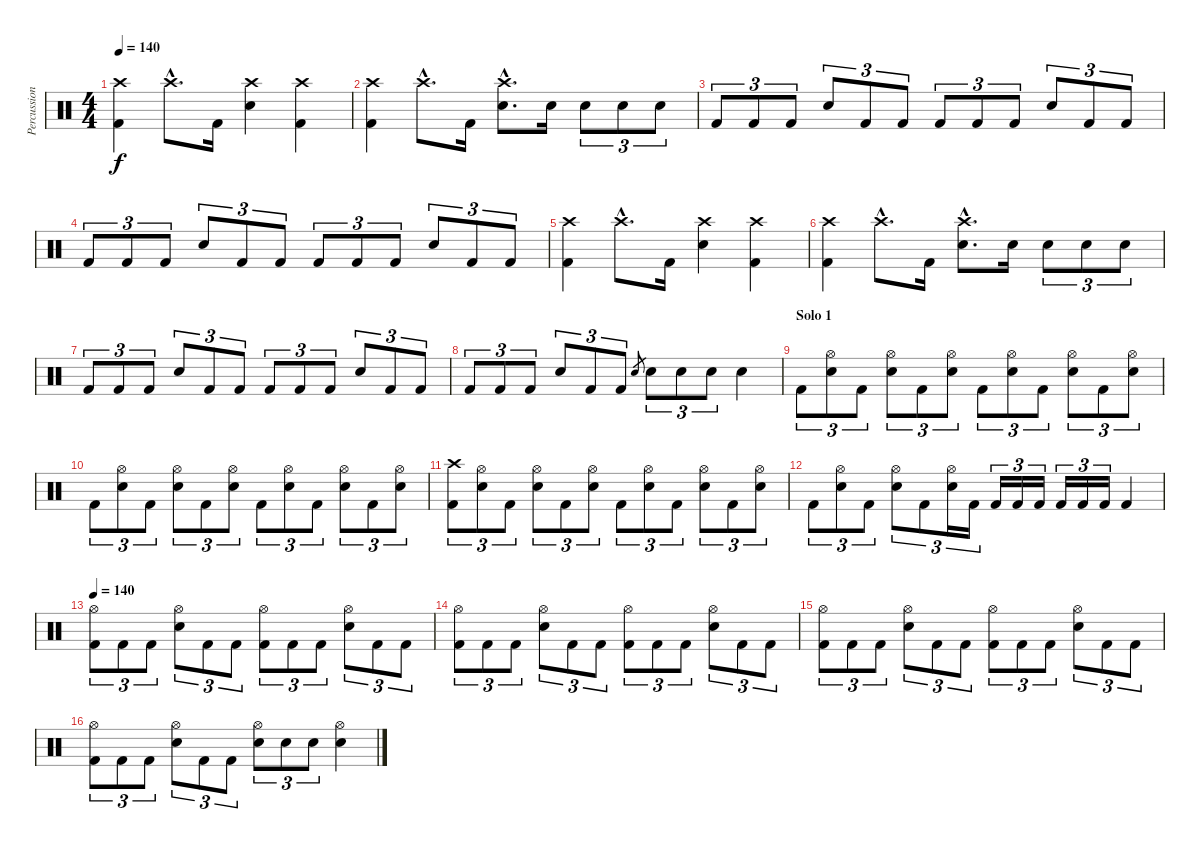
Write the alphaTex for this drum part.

\track ("Percussion" "Percussion") {instrument percussion}
\staff {score}
\articulation defaults
\ts (4 4)
\tempo 140
\clef neutral
\ks c
("Crash high (hit)" "Kick (hit) 2").4{dy f} "Crash high (hit)"{hac}.8{d} "Kick (hit) 2".16 ("Crash high (hit)" "Electric Snare (hit)").4 ("Crash high (hit)" "Kick (hit) 2").4 |
("Crash high (hit)" "Kick (hit) 2").4 "Crash high (hit)"{hac}.8{d} "Kick (hit) 2".16 ("Crash high (hit)"{hac} "Electric Snare (hit)"{hac}).8{d} "Electric Snare (hit)".16 "Electric Snare (hit)".8{tu (3 2)} "Electric Snare (hit)".8{tu (3 2)} "Electric Snare (hit)".8{tu (3 2)} |
"Kick (hit) 2".8{tu (3 2)} "Kick (hit) 2".8{tu (3 2)} "Kick (hit) 2".8{tu (3 2)} "Electric Snare (hit)".8{tu (3 2)} "Kick (hit) 2".8{tu (3 2)} "Kick (hit) 2".8{tu (3 2)} "Kick (hit) 2".8{tu (3 2)} "Kick (hit) 2".8{tu (3 2)} "Kick (hit) 2".8{tu (3 2)} "Electric Snare (hit)".8{tu (3 2)} "Kick (hit) 2".8{tu (3 2)} "Kick (hit) 2".8{tu (3 2)} |
"Kick (hit) 2".8{tu (3 2)} "Kick (hit) 2".8{tu (3 2)} "Kick (hit) 2".8{tu (3 2)} "Electric Snare (hit)".8{tu (3 2)} "Kick (hit) 2".8{tu (3 2)} "Kick (hit) 2".8{tu (3 2)} "Kick (hit) 2".8{tu (3 2)} "Kick (hit) 2".8{tu (3 2)} "Kick (hit) 2".8{tu (3 2)} "Electric Snare (hit)".8{tu (3 2)} "Kick (hit) 2".8{tu (3 2)} "Kick (hit) 2".8{tu (3 2)} |
("Crash high (hit)" "Kick (hit) 2").4 "Crash high (hit)"{hac}.8{d} "Kick (hit) 2".16 ("Crash high (hit)" "Electric Snare (hit)").4 ("Crash high (hit)" "Kick (hit) 2").4 |
("Crash high (hit)" "Kick (hit) 2").4 "Crash high (hit)"{hac}.8{d} "Kick (hit) 2".16 ("Crash high (hit)"{hac} "Electric Snare (hit)"{hac}).8{d} "Electric Snare (hit)".16 "Electric Snare (hit)".8{tu (3 2)} "Electric Snare (hit)".8{tu (3 2)} "Electric Snare (hit)".8{tu (3 2)} |
"Kick (hit) 2".8{tu (3 2)} "Kick (hit) 2".8{tu (3 2)} "Kick (hit) 2".8{tu (3 2)} "Electric Snare (hit)".8{tu (3 2)} "Kick (hit) 2".8{tu (3 2)} "Kick (hit) 2".8{tu (3 2)} "Kick (hit) 2".8{tu (3 2)} "Kick (hit) 2".8{tu (3 2)} "Kick (hit) 2".8{tu (3 2)} "Electric Snare (hit)".8{tu (3 2)} "Kick (hit) 2".8{tu (3 2)} "Kick (hit) 2".8{tu (3 2)} |
"Kick (hit) 2".8{tu (3 2)} "Kick (hit) 2".8{tu (3 2)} "Kick (hit) 2".8{tu (3 2)} "Electric Snare (hit)".8{tu (3 2)} "Kick (hit) 2".8{tu (3 2)} "Kick (hit) 2".8{tu (3 2)} "Electric Snare (hit)".8{gr} "Electric Snare (hit)".8{tu (3 2)} "Electric Snare (hit)".8{tu (3 2)} "Electric Snare (hit)".8{tu (3 2)} "Electric Snare (hit)".4 |
\section ("" "Solo 1")
"Kick (hit) 2".8{tu (3 2)} ("Hi-Hat (open)" "Electric Snare (hit)").8{tu (3 2)} "Kick (hit) 2".8{tu (3 2)} ("Hi-Hat (open)" "Electric Snare (hit)").8{tu (3 2)} "Kick (hit) 2".8{tu (3 2)} ("Hi-Hat (open)" "Electric Snare (hit)").8{tu (3 2)} "Kick (hit) 2".8{tu (3 2)} ("Hi-Hat (open)" "Electric Snare (hit)").8{tu (3 2)} "Kick (hit) 2".8{tu (3 2)} ("Hi-Hat (open)" "Electric Snare (hit)").8{tu (3 2)} "Kick (hit) 2".8{tu (3 2)} ("Hi-Hat (open)" "Electric Snare (hit)").8{tu (3 2)} |
"Kick (hit) 2".8{tu (3 2)} ("Hi-Hat (open)" "Electric Snare (hit)").8{tu (3 2)} "Kick (hit) 2".8{tu (3 2)} ("Hi-Hat (open)" "Electric Snare (hit)").8{tu (3 2)} "Kick (hit) 2".8{tu (3 2)} ("Hi-Hat (open)" "Electric Snare (hit)").8{tu (3 2)} "Kick (hit) 2".8{tu (3 2)} ("Hi-Hat (open)" "Electric Snare (hit)").8{tu (3 2)} "Kick (hit) 2".8{tu (3 2)} ("Hi-Hat (open)" "Electric Snare (hit)").8{tu (3 2)} "Kick (hit) 2".8{tu (3 2)} ("Hi-Hat (open)" "Electric Snare (hit)").8{tu (3 2)} |
("Crash high (hit)" "Kick (hit) 2").8{tu (3 2)} ("Hi-Hat (open)" "Electric Snare (hit)").8{tu (3 2)} "Kick (hit) 2".8{tu (3 2)} ("Hi-Hat (open)" "Electric Snare (hit)").8{tu (3 2)} "Kick (hit) 2".8{tu (3 2)} ("Hi-Hat (open)" "Electric Snare (hit)").8{tu (3 2)} "Kick (hit) 2".8{tu (3 2)} ("Hi-Hat (open)" "Electric Snare (hit)").8{tu (3 2)} "Kick (hit) 2".8{tu (3 2)} ("Hi-Hat (open)" "Electric Snare (hit)").8{tu (3 2)} "Kick (hit) 2".8{tu (3 2)} ("Hi-Hat (open)" "Electric Snare (hit)").8{tu (3 2)} |
"Kick (hit) 2".8{tu (3 2)} ("Hi-Hat (open)" "Electric Snare (hit)").8{tu (3 2)} "Kick (hit) 2".8{tu (3 2)} ("Hi-Hat (open)" "Electric Snare (hit)").8{tu (3 2)} "Kick (hit) 2".8{tu (3 2)} ("Hi-Hat (open)" "Electric Snare (hit)").16{tu (3 2)} "Kick (hit) 2".16{tu (3 2)} "Kick (hit) 2".16{tu (3 2)} "Kick (hit) 2".16{tu (3 2)} "Kick (hit) 2".16{tu (3 2)} "Kick (hit) 2".16{tu (3 2)} "Kick (hit) 2".16{tu (3 2)} "Kick (hit) 2".16{tu (3 2)} "Kick (hit) 2".4 |
\tempo 140
("Hi-Hat (open)" "Kick (hit) 2").8{tu (3 2)} "Kick (hit) 2".8{tu (3 2)} "Kick (hit) 2".8{tu (3 2)} ("Hi-Hat (open)" "Electric Snare (hit)").8{tu (3 2)} "Kick (hit) 2".8{tu (3 2)} "Kick (hit) 2".8{tu (3 2)} ("Hi-Hat (open)" "Kick (hit) 2").8{tu (3 2)} "Kick (hit) 2".8{tu (3 2)} "Kick (hit) 2".8{tu (3 2)} ("Hi-Hat (open)" "Electric Snare (hit)").8{tu (3 2)} "Kick (hit) 2".8{tu (3 2)} "Kick (hit) 2".8{tu (3 2)} |
("Hi-Hat (open)" "Kick (hit) 2").8{tu (3 2)} "Kick (hit) 2".8{tu (3 2)} "Kick (hit) 2".8{tu (3 2)} ("Hi-Hat (open)" "Electric Snare (hit)").8{tu (3 2)} "Kick (hit) 2".8{tu (3 2)} "Kick (hit) 2".8{tu (3 2)} ("Hi-Hat (open)" "Kick (hit) 2").8{tu (3 2)} "Kick (hit) 2".8{tu (3 2)} "Kick (hit) 2".8{tu (3 2)} ("Hi-Hat (open)" "Electric Snare (hit)").8{tu (3 2)} "Kick (hit) 2".8{tu (3 2)} "Kick (hit) 2".8{tu (3 2)} |
("Hi-Hat (open)" "Kick (hit) 2").8{tu (3 2)} "Kick (hit) 2".8{tu (3 2)} "Kick (hit) 2".8{tu (3 2)} ("Hi-Hat (open)" "Electric Snare (hit)").8{tu (3 2)} "Kick (hit) 2".8{tu (3 2)} "Kick (hit) 2".8{tu (3 2)} ("Hi-Hat (open)" "Kick (hit) 2").8{tu (3 2)} "Kick (hit) 2".8{tu (3 2)} "Kick (hit) 2".8{tu (3 2)} ("Hi-Hat (open)" "Electric Snare (hit)").8{tu (3 2)} "Kick (hit) 2".8{tu (3 2)} "Kick (hit) 2".8{tu (3 2)} |
("Hi-Hat (open)" "Kick (hit) 2").8{tu (3 2)} "Kick (hit) 2".8{tu (3 2)} "Kick (hit) 2".8{tu (3 2)} ("Hi-Hat (open)" "Electric Snare (hit)").8{tu (3 2)} "Kick (hit) 2".8{tu (3 2)} "Kick (hit) 2".8{tu (3 2)} ("Hi-Hat (open)" "Electric Snare (hit)").8{tu (3 2)} "Electric Snare (hit)".8{tu (3 2)} "Electric Snare (hit)".8{tu (3 2)} ("Hi-Hat (open)" "Electric Snare (hit)").4
